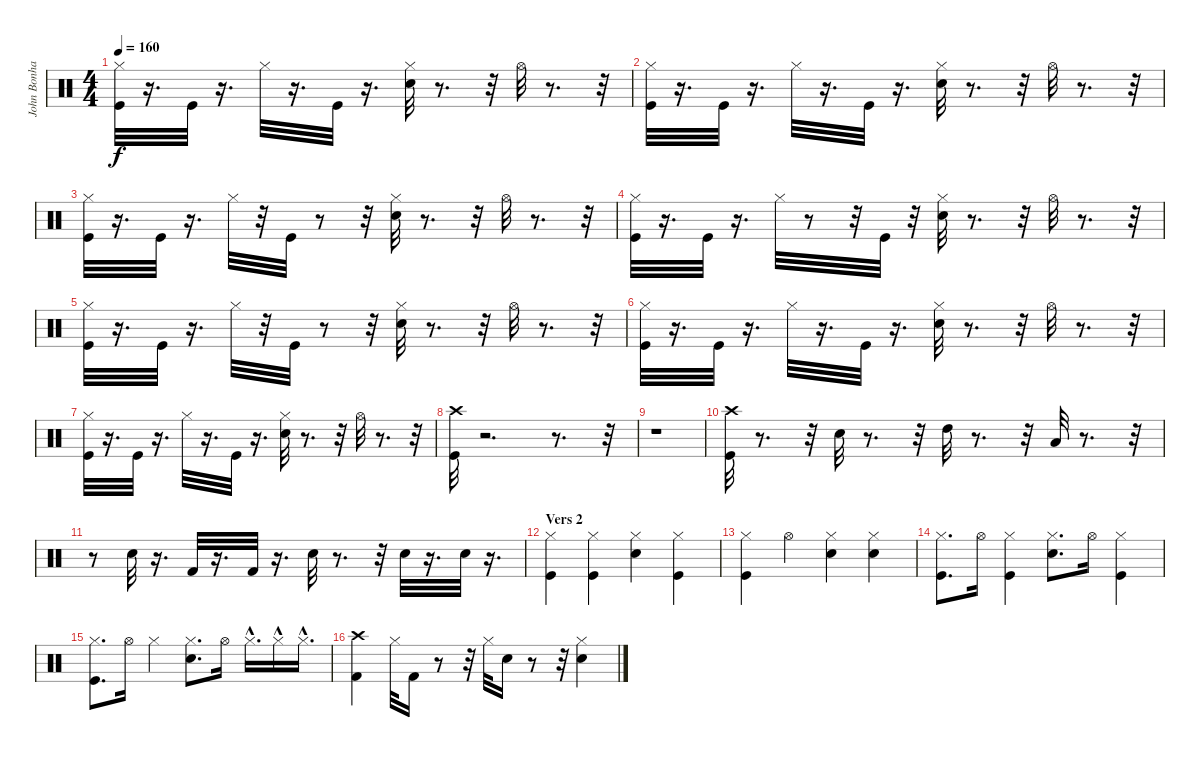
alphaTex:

\track ("John Bonham" "John Bonha") {instrument percussion}
\staff {score}
\articulation defaults
\ts (4 4)
\tempo 160
\clef neutral
\ks c
("Hi-Hat (closed)" "Kick (hit)").32{dy f} r.16{d} "Kick (hit)".32 r.16{d} "Hi-Hat (closed)".32 r.16{d} "Kick (hit)".32 r.16{d} ("Hi-Hat (closed)" "Snare (hit) 2").32 r.8{d} r.32 "Hi-Hat (open)".32 r.8{d} r.32 |
("Hi-Hat (closed)" "Kick (hit)").32 r.16{d} "Kick (hit)".32 r.16{d} "Hi-Hat (closed)".32 r.16{d} "Kick (hit)".32 r.16{d} ("Hi-Hat (closed)" "Snare (hit) 2").32 r.8{d} r.32 "Hi-Hat (open)".32 r.8{d} r.32 |
("Hi-Hat (closed)" "Kick (hit)").32 r.16{d} "Kick (hit)".32 r.16{d} "Hi-Hat (closed)".32 r.32 "Kick (hit)".32 r.8 r.32 ("Hi-Hat (closed)" "Snare (hit) 2").32 r.8{d} r.32 "Hi-Hat (open)".32 r.8{d} r.32 |
("Hi-Hat (closed)" "Kick (hit)").32 r.16{d} "Kick (hit)".32 r.16{d} "Hi-Hat (closed)".32 r.8 r.32 "Kick (hit)".32 r.32 ("Hi-Hat (closed)" "Snare (hit) 2").32 r.8{d} r.32 "Hi-Hat (open)".32 r.8{d} r.32 |
("Hi-Hat (closed)" "Kick (hit)").32 r.16{d} "Kick (hit)".32 r.16{d} "Hi-Hat (closed)".32 r.32 "Kick (hit)".32 r.8 r.32 ("Hi-Hat (closed)" "Snare (hit) 2").32 r.8{d} r.32 "Hi-Hat (open)".32 r.8{d} r.32 |
("Hi-Hat (closed)" "Kick (hit)").32 r.16{d} "Kick (hit)".32 r.16{d} "Hi-Hat (closed)".32 r.16{d} "Kick (hit)".32 r.16{d} ("Hi-Hat (closed)" "Snare (hit) 2").32 r.8{d} r.32 "Hi-Hat (open)".32 r.8{d} r.32 |
("Hi-Hat (closed)" "Kick (hit)").32 r.16{d} "Kick (hit)".32 r.16{d} "Hi-Hat (closed)".32 r.16{d} "Kick (hit)".32 r.16{d} ("Hi-Hat (closed)" "Snare (hit) 2").32 r.8{d} r.32 "Hi-Hat (open)".32 r.8{d} r.32 |
("Crash high (hit)" "Kick (hit)").32 r.2{d} r.8{d} r.32 |
r.1 |
("Crash high (hit)" "Kick (hit)").32 r.8{d} r.32 "Snare (hit) 2".32 r.8{d} r.32 "High Tom (hit)".32 r.8{d} r.32 "Low Tom (hit)".32 r.8{d} r.32 |
r.8 "Snare (hit) 2".32 r.16{d} "Kick (hit) 2".32 r.16{d} "Kick (hit) 2".32 r.16{d} "Snare (hit) 2".32 r.8{d} r.32 "Snare (hit) 2".32 r.16{d} "Snare (hit) 2".32 r.16{d} |
\section ("" "Vers 2")
("Kick (hit)" "Hi-Hat (closed)").4 ("Kick (hit)" "Hi-Hat (closed)").4 ("Snare (hit) 2" "Hi-Hat (closed)").4 ("Kick (hit)" "Hi-Hat (closed)").4 |
("Kick (hit)" "Hi-Hat (closed)").4 "Hi-Hat (open)".4 ("Snare (hit) 2" "Hi-Hat (closed)").4 ("Snare (hit) 2" "Hi-Hat (closed)").4 |
("Kick (hit)" "Hi-Hat (closed)").8{d} "Hi-Hat (open)".16 ("Kick (hit)" "Hi-Hat (closed)").4 ("Snare (hit) 2" "Hi-Hat (closed)").8{d} "Hi-Hat (open)".16 ("Kick (hit)" "Hi-Hat (closed)").4 |
("Kick (hit)" "Hi-Hat (closed)").8{d} "Hi-Hat (open)".16 "Hi-Hat (closed)".4 ("Snare (hit) 2" "Hi-Hat (closed)").8{d} "Hi-Hat (open)".16 "Hi-Hat (closed)"{hac}.16{d} "Hi-Hat (closed)"{hac}.16 "Hi-Hat (closed)"{hac}.16{d} |
("Kick (hit) 2" "Crash high (hit)").4 "Hi-Hat (closed)".32 "Kick (hit) 2".16 r.8 r.32 "Hi-Hat (closed)".32 "Snare (hit) 2".16 r.8 r.32 ("Hi-Hat (closed)" "Snare (hit) 2").4
